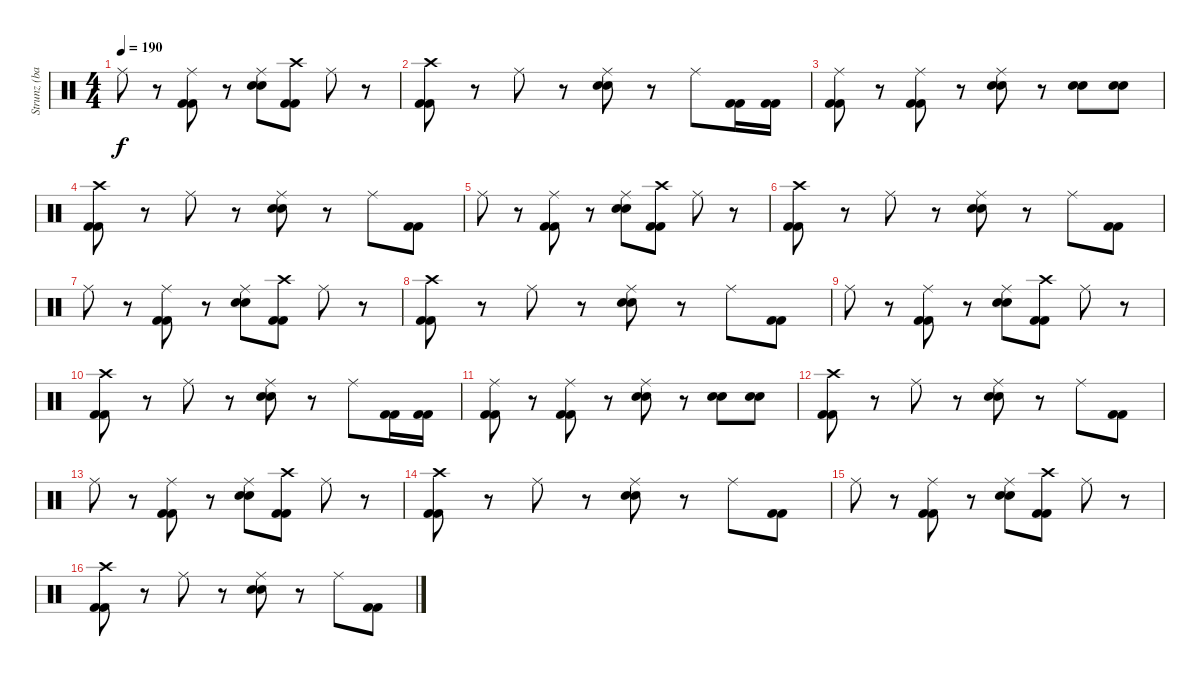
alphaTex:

\track ("Strunz (bateria)" "Strunz (ba") {instrument percussion}
\staff {score}
\articulation defaults
\ts (4 4)
\tempo 190
\clef neutral
\ks c "Ride (middle)".8{dy f}
r.8 ("Ride (middle)" "Kick (hit) 2" "Kick (hit) 2").8 r.8 ("Ride (middle)" "Snare (hit) 2" "Snare (hit) 2").8 ("Crash high (hit)" "Kick (hit) 2" "Kick (hit) 2").8 "Ride (middle)".8 r.8 |
("Crash high (hit)" "Kick (hit) 2" "Kick (hit) 2").8 r.8 "Ride (middle)".8 r.8 ("Ride (middle)" "Snare (hit) 2" "Snare (hit) 2").8 r.8 "Ride (middle)".8 ("Kick (hit) 2" "Kick (hit) 2").16 ("Kick (hit) 2" "Kick (hit) 2").16 |
("Ride (middle)" "Kick (hit) 2" "Kick (hit) 2").8 r.8 ("Ride (middle)" "Kick (hit) 2" "Kick (hit) 2").8 r.8 ("Ride (middle)" "Snare (hit) 2" "Snare (hit) 2").8 r.8 ("Snare (hit) 2" "Snare (hit) 2").8 ("Snare (hit) 2" "Snare (hit) 2").8 |
("Crash high (hit)" "Kick (hit) 2" "Kick (hit) 2").8 r.8 "Ride (middle)".8 r.8 ("Ride (middle)" "Snare (hit) 2" "Snare (hit) 2").8 r.8 "Ride (middle)".8 ("Kick (hit) 2" "Kick (hit) 2").8 |
"Ride (middle)".8 r.8 ("Ride (middle)" "Kick (hit) 2" "Kick (hit) 2").8 r.8 ("Ride (middle)" "Snare (hit) 2" "Snare (hit) 2").8 ("Crash high (hit)" "Kick (hit) 2" "Kick (hit) 2").8 "Ride (middle)".8 r.8 |
("Crash high (hit)" "Kick (hit) 2" "Kick (hit) 2").8 r.8 "Ride (middle)".8 r.8 ("Ride (middle)" "Snare (hit) 2" "Snare (hit) 2").8 r.8 "Ride (middle)".8 ("Kick (hit) 2" "Kick (hit) 2").8 |
"Ride (middle)".8 r.8 ("Ride (middle)" "Kick (hit) 2" "Kick (hit) 2").8 r.8 ("Ride (middle)" "Snare (hit) 2" "Snare (hit) 2").8 ("Crash high (hit)" "Kick (hit) 2" "Kick (hit) 2").8 "Ride (middle)".8 r.8 |
("Crash high (hit)" "Kick (hit) 2" "Kick (hit) 2").8 r.8 "Ride (middle)".8 r.8 ("Ride (middle)" "Snare (hit) 2" "Snare (hit) 2").8 r.8 "Ride (middle)".8 ("Kick (hit) 2" "Kick (hit) 2").8 |
"Ride (middle)".8 r.8 ("Ride (middle)" "Kick (hit) 2" "Kick (hit) 2").8 r.8 ("Ride (middle)" "Snare (hit) 2" "Snare (hit) 2").8 ("Crash high (hit)" "Kick (hit) 2" "Kick (hit) 2").8 "Ride (middle)".8 r.8 |
("Crash high (hit)" "Kick (hit) 2" "Kick (hit) 2").8 r.8 "Ride (middle)".8 r.8 ("Ride (middle)" "Snare (hit) 2" "Snare (hit) 2").8 r.8 "Ride (middle)".8 ("Kick (hit) 2" "Kick (hit) 2").16 ("Kick (hit) 2" "Kick (hit) 2").16 |
("Ride (middle)" "Kick (hit) 2" "Kick (hit) 2").8 r.8 ("Ride (middle)" "Kick (hit) 2" "Kick (hit) 2").8 r.8 ("Ride (middle)" "Snare (hit) 2" "Snare (hit) 2").8 r.8 ("Snare (hit) 2" "Snare (hit) 2").8 ("Snare (hit) 2" "Snare (hit) 2").8 |
("Crash high (hit)" "Kick (hit) 2" "Kick (hit) 2").8 r.8 "Ride (middle)".8 r.8 ("Ride (middle)" "Snare (hit) 2" "Snare (hit) 2").8 r.8 "Ride (middle)".8 ("Kick (hit) 2" "Kick (hit) 2").8 |
"Ride (middle)".8 r.8 ("Ride (middle)" "Kick (hit) 2" "Kick (hit) 2").8 r.8 ("Ride (middle)" "Snare (hit) 2" "Snare (hit) 2").8 ("Crash high (hit)" "Kick (hit) 2" "Kick (hit) 2").8 "Ride (middle)".8 r.8 |
("Crash high (hit)" "Kick (hit) 2" "Kick (hit) 2").8 r.8 "Ride (middle)".8 r.8 ("Ride (middle)" "Snare (hit) 2" "Snare (hit) 2").8 r.8 "Ride (middle)".8 ("Kick (hit) 2" "Kick (hit) 2").8 |
"Ride (middle)".8 r.8 ("Ride (middle)" "Kick (hit) 2" "Kick (hit) 2").8 r.8 ("Ride (middle)" "Snare (hit) 2" "Snare (hit) 2").8 ("Crash high (hit)" "Kick (hit) 2" "Kick (hit) 2").8 "Ride (middle)".8 r.8 |
("Crash high (hit)" "Kick (hit) 2" "Kick (hit) 2").8 r.8 "Ride (middle)".8 r.8 ("Ride (middle)" "Snare (hit) 2" "Snare (hit) 2").8 r.8 "Ride (middle)".8 ("Kick (hit) 2" "Kick (hit) 2").8
